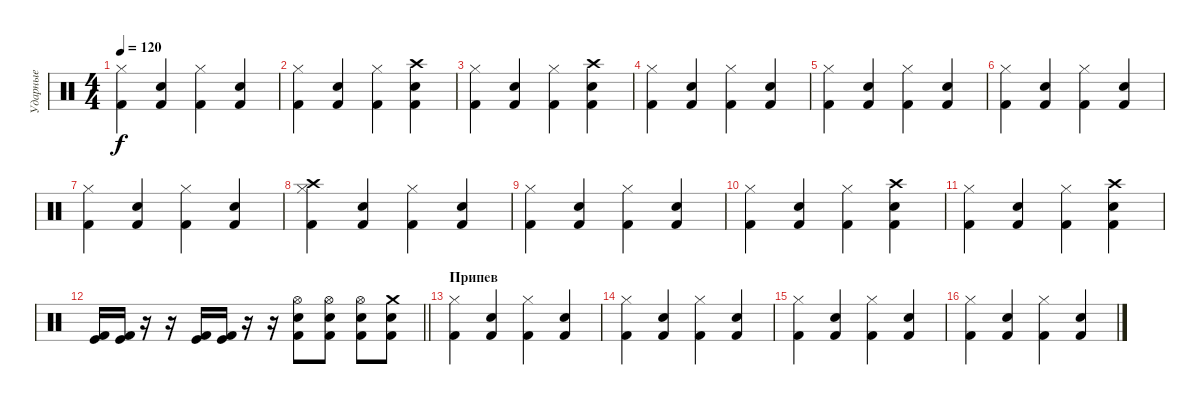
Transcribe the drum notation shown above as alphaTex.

\track ("Ударные" "Ударные") {instrument percussion}
\staff {score}
\articulation defaults
\ts (4 4)
\tempo 120
\clef neutral
\ks c
("Hi-Hat (closed)" "Kick (hit) 2").4{dy f} ("Snare (hit) 2" "Kick (hit) 2").4 ("Hi-Hat (closed)" "Kick (hit) 2").4 ("Snare (hit) 2" "Kick (hit) 2").4 |
("Hi-Hat (closed)" "Kick (hit) 2").4 ("Snare (hit) 2" "Kick (hit) 2").4 ("Hi-Hat (closed)" "Kick (hit) 2").4 ("Crash high (hit)" "Snare (hit) 2" "Kick (hit) 2").4 |
("Hi-Hat (closed)" "Kick (hit) 2").4 ("Snare (hit) 2" "Kick (hit) 2").4 ("Hi-Hat (closed)" "Kick (hit) 2").4 ("Crash high (hit)" "Snare (hit) 2" "Kick (hit) 2").4 |
("Hi-Hat (closed)" "Kick (hit) 2").4 ("Snare (hit) 2" "Kick (hit) 2").4 ("Hi-Hat (closed)" "Kick (hit) 2").4 ("Snare (hit) 2" "Kick (hit) 2").4 |
("Hi-Hat (closed)" "Kick (hit) 2").4 ("Snare (hit) 2" "Kick (hit) 2").4 ("Hi-Hat (closed)" "Kick (hit) 2").4 ("Snare (hit) 2" "Kick (hit) 2").4 |
("Hi-Hat (closed)" "Kick (hit) 2").4 ("Snare (hit) 2" "Kick (hit) 2").4 ("Hi-Hat (closed)" "Kick (hit) 2").4 ("Snare (hit) 2" "Kick (hit) 2").4 |
("Hi-Hat (closed)" "Kick (hit) 2").4 ("Snare (hit) 2" "Kick (hit) 2").4 ("Hi-Hat (closed)" "Kick (hit) 2").4 ("Snare (hit) 2" "Kick (hit) 2").4 |
("Crash high (hit)" "Hi-Hat (closed)" "Kick (hit) 2").4 ("Snare (hit) 2" "Kick (hit) 2").4 ("Hi-Hat (closed)" "Kick (hit) 2").4 ("Snare (hit) 2" "Kick (hit) 2").4 |
("Hi-Hat (closed)" "Kick (hit) 2").4 ("Snare (hit) 2" "Kick (hit) 2").4 ("Hi-Hat (closed)" "Kick (hit) 2").4 ("Snare (hit) 2" "Kick (hit) 2").4 |
("Hi-Hat (closed)" "Kick (hit) 2").4 ("Snare (hit) 2" "Kick (hit) 2").4 ("Hi-Hat (closed)" "Kick (hit) 2").4 ("Crash high (hit)" "Snare (hit) 2" "Kick (hit) 2").4 |
("Hi-Hat (closed)" "Kick (hit) 2").4 ("Snare (hit) 2" "Kick (hit) 2").4 ("Hi-Hat (closed)" "Kick (hit) 2").4 ("Crash high (hit)" "Snare (hit) 2" "Kick (hit) 2").4 |
\barLineRight lightlight
("Kick (hit)" "Kick (hit) 2").16 ("Kick (hit)" "Kick (hit) 2").16 r.16 r.16 ("Kick (hit)" "Kick (hit) 2").16 ("Kick (hit)" "Kick (hit) 2").16 r.16 r.16 ("Hi-Hat (open)" "Snare (hit) 2" "Kick (hit) 2").8 ("Hi-Hat (open)" "Snare (hit) 2" "Kick (hit) 2").8 ("Hi-Hat (open)" "Snare (hit) 2" "Kick (hit) 2").8 ("Crash medium (hit)" "Snare (hit) 2" "Kick (hit) 2").8 |
\section ("" "Припев")
("Hi-Hat (closed)" "Kick (hit) 2").4 ("Snare (hit) 2" "Kick (hit) 2").4 ("Hi-Hat (closed)" "Kick (hit) 2").4 ("Snare (hit) 2" "Kick (hit) 2").4 |
("Hi-Hat (closed)" "Kick (hit) 2").4 ("Snare (hit) 2" "Kick (hit) 2").4 ("Hi-Hat (closed)" "Kick (hit) 2").4 ("Snare (hit) 2" "Kick (hit) 2").4 |
("Hi-Hat (closed)" "Kick (hit) 2").4 ("Snare (hit) 2" "Kick (hit) 2").4 ("Hi-Hat (closed)" "Kick (hit) 2").4 ("Snare (hit) 2" "Kick (hit) 2").4 |
("Hi-Hat (closed)" "Kick (hit) 2").4 ("Snare (hit) 2" "Kick (hit) 2").4 ("Hi-Hat (closed)" "Kick (hit) 2").4 ("Snare (hit) 2" "Kick (hit) 2").4
